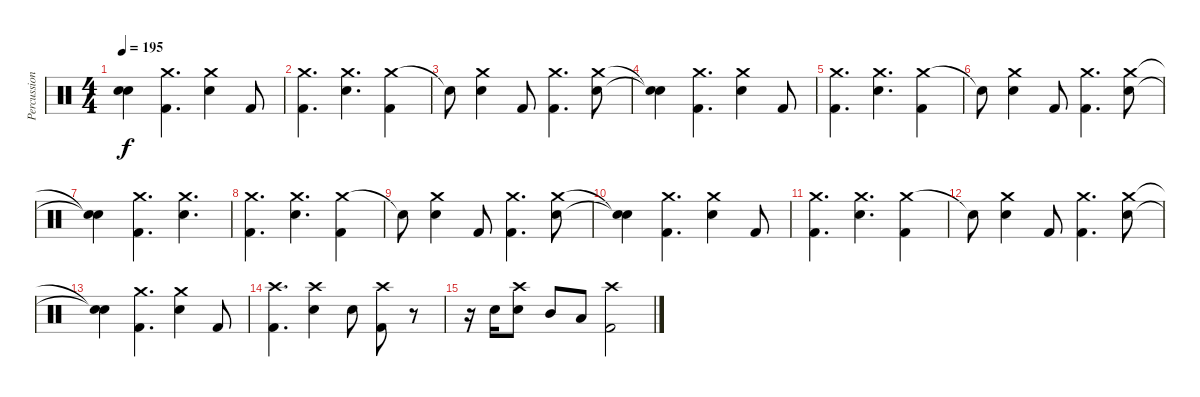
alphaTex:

\track ("Percussion" "Percussion") {instrument percussion}
\staff {score}
\articulation defaults
\ts (4 4)
\tempo 195
\clef neutral
\ks c
("Snare (hit)"{t} "Snare (hit)"{t}).4{dy f} ("Crash medium (hit)" "Kick (hit) 2").4{d} ("Crash medium (hit)" "Electric Snare (hit)").4 "Kick (hit) 2".8 |
("Crash medium (hit)" "Kick (hit) 2").4{d} ("Crash medium (hit)" "Electric Snare (hit)").4{d} ("Crash medium (hit)" "Kick (hit) 2").4 |
"Snare (hit)"{t}.8 ("Crash medium (hit)" "Electric Snare (hit)").4 "Kick (hit) 2".8 ("Crash medium (hit)" "Kick (hit) 2").4{d} ("Crash medium (hit)" "Electric Snare (hit)").8 |
("Snare (hit)"{t} "Snare (hit)"{t}).4 ("Crash medium (hit)" "Kick (hit) 2").4{d} ("Crash medium (hit)" "Electric Snare (hit)").4 "Kick (hit) 2".8 |
("Crash medium (hit)" "Kick (hit) 2").4{d} ("Crash medium (hit)" "Electric Snare (hit)").4{d} ("Crash medium (hit)" "Kick (hit) 2").4 |
"Snare (hit)"{t}.8 ("Crash medium (hit)" "Electric Snare (hit)").4 "Kick (hit) 2".8 ("Crash medium (hit)" "Kick (hit) 2").4{d} ("Crash medium (hit)" "Electric Snare (hit)").8 |
("Snare (hit)"{t} "Snare (hit)"{t}).4 ("Crash medium (hit)" "Kick (hit) 2").4{d} ("Crash medium (hit)" "Electric Snare (hit)").4{d} |
("Crash medium (hit)" "Kick (hit) 2").4{d} ("Crash medium (hit)" "Electric Snare (hit)").4{d} ("Crash medium (hit)" "Kick (hit) 2").4 |
"Snare (hit)"{t}.8 ("Crash medium (hit)" "Electric Snare (hit)").4 "Kick (hit) 2".8 ("Crash medium (hit)" "Kick (hit) 2").4{d} ("Crash medium (hit)" "Electric Snare (hit)").8 |
("Snare (hit)"{t} "Snare (hit)"{t}).4 ("Crash medium (hit)" "Kick (hit) 2").4{d} ("Crash medium (hit)" "Electric Snare (hit)").4 "Kick (hit) 2".8 |
("Crash medium (hit)" "Kick (hit) 2").4{d} ("Crash medium (hit)" "Electric Snare (hit)").4{d} ("Crash medium (hit)" "Kick (hit) 2").4 |
"Snare (hit)"{t}.8 ("Crash medium (hit)" "Electric Snare (hit)").4 "Kick (hit) 2".8 ("Crash medium (hit)" "Kick (hit) 2").4{d} ("Crash medium (hit)" "Electric Snare (hit)").8 |
("Snare (hit)"{t} "Snare (hit)"{t}).4 ("Crash medium (hit)" "Kick (hit) 2").4{d} ("Crash medium (hit)" "Electric Snare (hit)").4 "Kick (hit) 2".8 |
("Crash high (hit)" "Kick (hit) 2").4{d} ("Crash high (hit)" "Electric Snare (hit)").4 "Electric Snare (hit)".8 ("Crash high (hit)" "Kick (hit) 2").8 r.8 |
r.16 "Electric Snare (hit)".16 ("Crash high (hit)" "Electric Snare (hit)").8 "Mid Tom (hit)".8 "Low Tom (hit)".8 ("Crash high (hit)" "Kick (hit) 2").2
